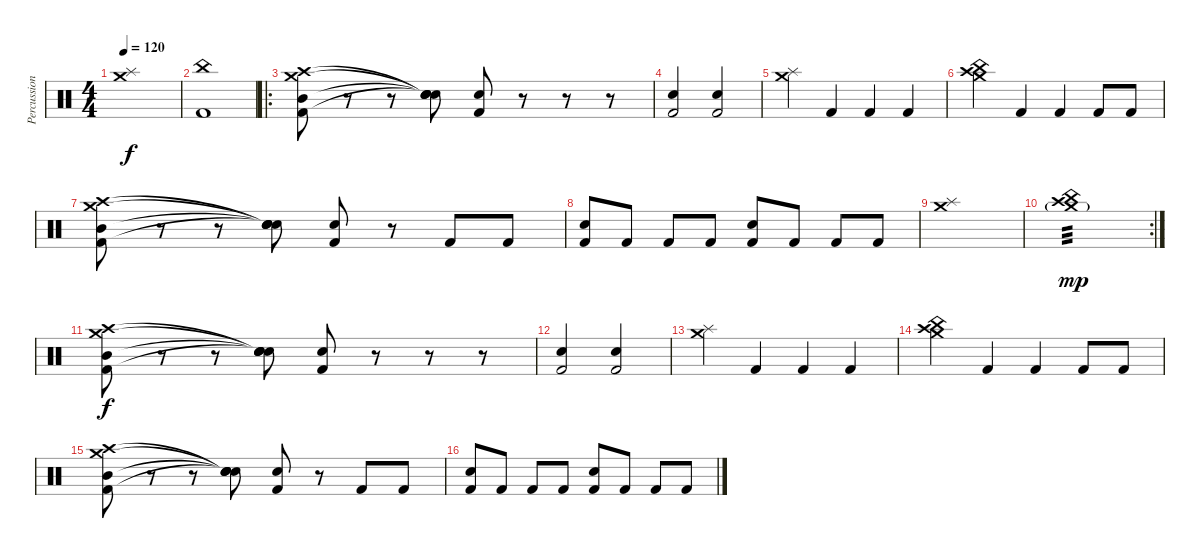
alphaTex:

\track ("Percussion" "Percussion") {instrument percussion}
\staff {score}
\articulation defaults
\ts (4 4)
\tempo 120
\clef neutral
\ks c
("Crash medium (hit)" "Splash (hit)").1{dy f} |
("China (hit)" "Kick (hit) 2").1 |
\ro
("Mid Tom (hit)" "Crash medium (hit)" "Kick (hit) 2" "Crash high (hit)").8 r.8 r.8 ("Snare (hit)"{t} "Snare (hit)"{t} "Snare (hit)"{t} "Snare (hit)"{t}).8 ("Metronome (bell)" "Kick (hit) 2").8 r.8 r.8 r.8 |
("Metronome (bell)" "Kick (hit) 2").2 ("Metronome (bell)" "Kick (hit) 2").2 |
("Crash medium (hit)" "Splash (hit)").4 "Kick (hit) 2".4 "Kick (hit) 2".4 "Kick (hit) 2".4 |
("China (hit)" "Crash medium (hit)" "Crash high (hit)").4 "Kick (hit) 2".4 "Kick (hit) 2".4 "Kick (hit) 2".8 "Kick (hit) 2".8 |
("Mid Tom (hit)" "Crash medium (hit)" "Kick (hit) 2" "Crash high (hit)").8 r.8 r.8 ("Snare (hit)"{t} "Snare (hit)"{t} "Snare (hit)"{t} "Snare (hit)"{t}).8 ("Metronome (bell)" "Kick (hit) 2").8 r.8 "Kick (hit) 2".8 "Kick (hit) 2".8 |
("Metronome (bell)" "Kick (hit) 2").8 "Kick (hit) 2".8 "Kick (hit) 2".8 "Kick (hit) 2".8 ("Metronome (bell)" "Kick (hit) 2").8 "Kick (hit) 2".8 "Kick (hit) 2".8 "Kick (hit) 2".8 |
("Crash medium (hit)" "Splash (hit)").1 |
\rc 2
("China (hit)" "Crash medium (hit)"{g} "Crash high (hit)").1{tp 3 dy mp} |
("Mid Tom (hit)" "Crash medium (hit)" "Kick (hit) 2" "Crash high (hit)").8{dy f} r.8 r.8 ("Snare (hit)"{t} "Snare (hit)"{t} "Snare (hit)"{t} "Snare (hit)"{t}).8 ("Metronome (bell)" "Kick (hit) 2").8 r.8 r.8 r.8 |
("Metronome (bell)" "Kick (hit) 2").2 ("Metronome (bell)" "Kick (hit) 2").2 |
("Crash medium (hit)" "Splash (hit)").4 "Kick (hit) 2".4 "Kick (hit) 2".4 "Kick (hit) 2".4 |
("China (hit)" "Crash medium (hit)" "Crash high (hit)").4 "Kick (hit) 2".4 "Kick (hit) 2".4 "Kick (hit) 2".8 "Kick (hit) 2".8 |
("Mid Tom (hit)" "Crash medium (hit)" "Kick (hit) 2" "Crash high (hit)").8 r.8 r.8 ("Snare (hit)"{t} "Snare (hit)"{t} "Snare (hit)"{t} "Snare (hit)"{t}).8 ("Metronome (bell)" "Kick (hit) 2").8 r.8 "Kick (hit) 2".8 "Kick (hit) 2".8 |
("Metronome (bell)" "Kick (hit) 2").8 "Kick (hit) 2".8 "Kick (hit) 2".8 "Kick (hit) 2".8 ("Metronome (bell)" "Kick (hit) 2").8 "Kick (hit) 2".8 "Kick (hit) 2".8 "Kick (hit) 2".8
